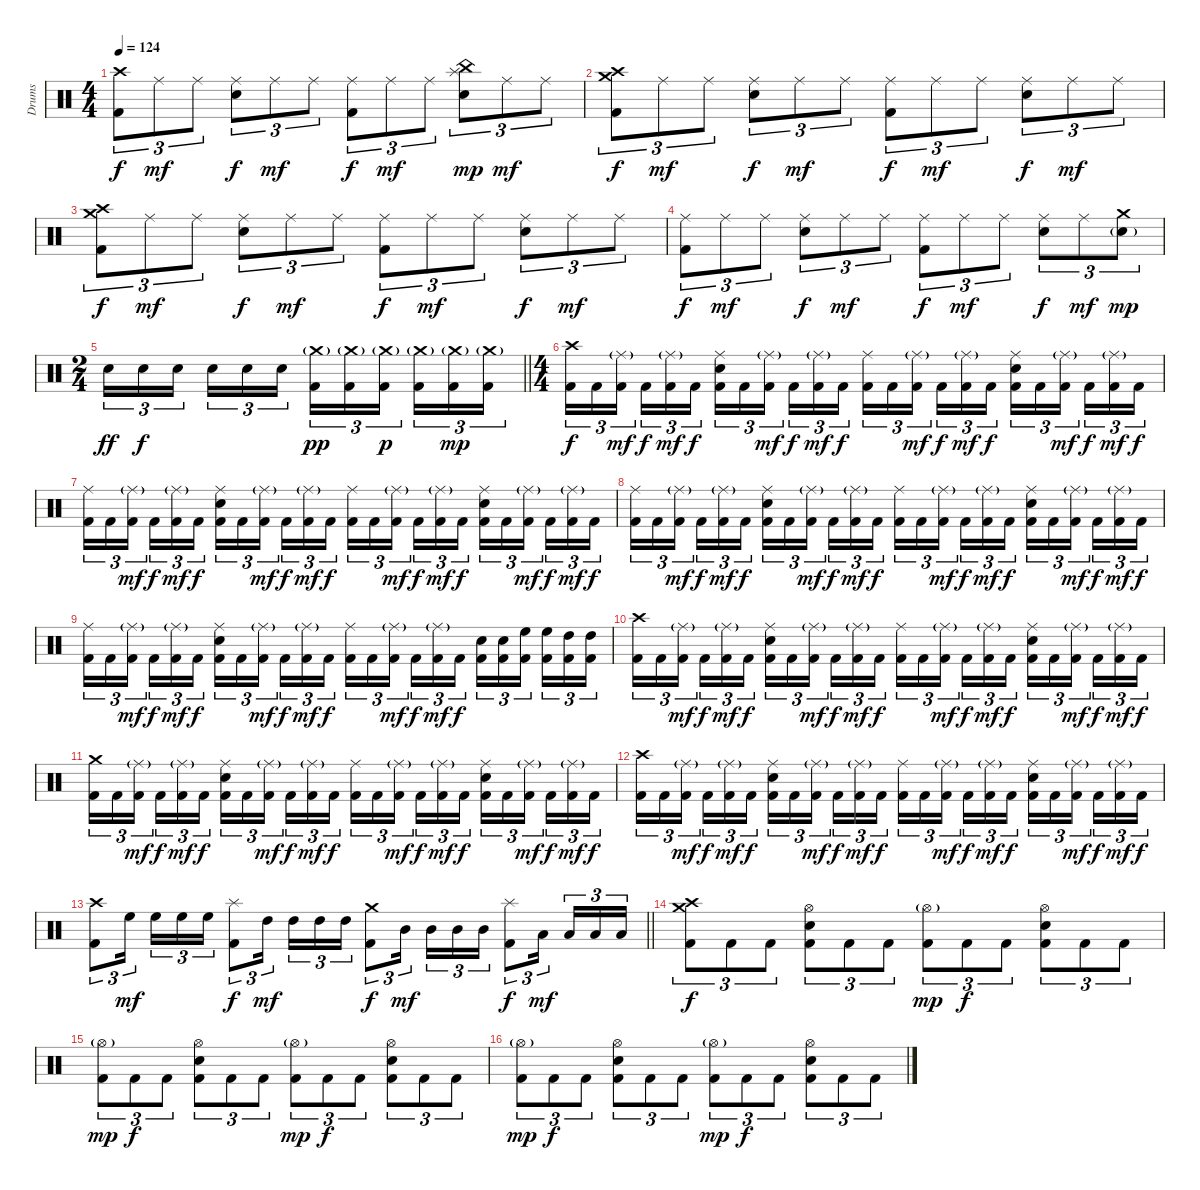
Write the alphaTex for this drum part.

\track ("Drums" "Drums") {instrument percussion}
\staff {score}
\articulation defaults
\ts (4 4)
\tempo 124
\clef neutral
\ks c
("Crash high (hit)" "Kick (hit) 2").8{tu (3 2) dy f} "Ride (middle)".8{tu (3 2) dy mf} "Ride (middle)".8{tu (3 2)} ("Ride (middle)" "Electric Snare (hit)").8{tu (3 2) dy f} "Ride (middle)".8{tu (3 2) dy mf} "Ride (middle)".8{tu (3 2)} ("Ride (middle)" "Kick (hit) 2").8{tu (3 2) dy f} "Ride (middle)".8{tu (3 2) dy mf} "Ride (middle)".8{tu (3 2)} ("China (hit)" "Splash (hit)" "Electric Snare (hit)").8{tu (3 2) dy mp} "Ride (middle)".8{tu (3 2) dy mf} "Ride (middle)".8{tu (3 2)} |
("Crash high (hit)" "Crash medium (hit)" "Kick (hit) 2").8{tu (3 2) dy f} "Ride (middle)".8{tu (3 2) dy mf} "Ride (middle)".8{tu (3 2)} ("Ride (middle)" "Electric Snare (hit)").8{tu (3 2) dy f} "Ride (middle)".8{tu (3 2) dy mf} "Ride (middle)".8{tu (3 2)} ("Ride (middle)" "Kick (hit) 2").8{tu (3 2) dy f} "Ride (middle)".8{tu (3 2) dy mf} "Ride (middle)".8{tu (3 2)} ("Ride (middle)" "Electric Snare (hit)").8{tu (3 2) dy f} "Ride (middle)".8{tu (3 2) dy mf} "Ride (middle)".8{tu (3 2)} |
("Crash high (hit)" "Crash medium (hit)" "Kick (hit) 2").8{tu (3 2) dy f} "Ride (middle)".8{tu (3 2) dy mf} "Ride (middle)".8{tu (3 2)} ("Ride (middle)" "Electric Snare (hit)").8{tu (3 2) dy f} "Ride (middle)".8{tu (3 2) dy mf} "Ride (middle)".8{tu (3 2)} ("Ride (middle)" "Kick (hit) 2").8{tu (3 2) dy f} "Ride (middle)".8{tu (3 2) dy mf} "Ride (middle)".8{tu (3 2)} ("Ride (middle)" "Electric Snare (hit)").8{tu (3 2) dy f} "Ride (middle)".8{tu (3 2) dy mf} "Ride (middle)".8{tu (3 2)} |
("Ride (middle)" "Kick (hit) 2").8{tu (3 2) dy f} "Ride (middle)".8{tu (3 2) dy mf} "Ride (middle)".8{tu (3 2)} ("Ride (middle)" "Electric Snare (hit)").8{tu (3 2) dy f} "Ride (middle)".8{tu (3 2) dy mf} "Ride (middle)".8{tu (3 2)} ("Ride (middle)" "Kick (hit) 2").8{tu (3 2) dy f} "Ride (middle)".8{tu (3 2) dy mf} "Ride (middle)".8{tu (3 2)} ("Ride (middle)" "Electric Snare (hit)").8{tu (3 2) dy f} "Ride (middle)".8{tu (3 2) dy mf} ("Crash medium (hit)" "Electric Snare (hit)"{g}).8{tu (3 2) dy mp} |
\ts (2 4)
\barLineRight lightlight "Electric Snare (hit)".16{tu (3 2) dy ff} "Electric Snare (hit)".16{tu (3 2) dy f} "Electric Snare (hit)".16{tu (3 2)} "Electric Snare (hit)".16{tu (3 2)} "Electric Snare (hit)".16{tu (3 2)} "Electric Snare (hit)".16{tu (3 2)}
("Crash medium (hit)"{g} "Kick (hit) 2").16{tu (3 2) dy pp} ("Crash medium (hit)"{g} "Kick (hit) 2").16{tu (3 2)} ("Crash medium (hit)"{g} "Kick (hit) 2").16{tu (3 2) dy p} ("Crash medium (hit)"{g} "Kick (hit) 2").16{tu (3 2)} ("Crash medium (hit)"{g} "Kick (hit) 2").16{tu (3 2) dy mp} ("Crash medium (hit)"{g} "Kick (hit) 2").16{tu (3 2)} |
\ts (4 4)
("Crash high (hit)" "Kick (hit) 2").16{tu (3 2) dy f} "Kick (hit) 2".16{tu (3 2)} ("Ride (middle)"{g} "Kick (hit) 2").16{tu (3 2) dy mf} "Kick (hit) 2".16{tu (3 2) dy f} ("Ride (middle)"{g} "Kick (hit) 2").16{tu (3 2) dy mf} "Kick (hit) 2".16{tu (3 2) dy f} ("Ride (middle)" "Electric Snare (hit)" "Kick (hit) 2").16{tu (3 2)} "Kick (hit) 2".16{tu (3 2)} ("Ride (middle)"{g} "Kick (hit) 2").16{tu (3 2) dy mf} "Kick (hit) 2".16{tu (3 2) dy f} ("Ride (middle)"{g} "Kick (hit) 2").16{tu (3 2) dy mf} "Kick (hit) 2".16{tu (3 2) dy f} ("Ride (middle)" "Kick (hit) 2").16{tu (3 2)} "Kick (hit) 2".16{tu (3 2)} ("Ride (middle)"{g} "Kick (hit) 2").16{tu (3 2) dy mf} "Kick (hit) 2".16{tu (3 2) dy f} ("Ride (middle)"{g} "Kick (hit) 2").16{tu (3 2) dy mf} "Kick (hit) 2".16{tu (3 2) dy f} ("Ride (middle)" "Electric Snare (hit)" "Kick (hit) 2").16{tu (3 2)} "Kick (hit) 2".16{tu (3 2)} ("Ride (middle)"{g} "Kick (hit) 2").16{tu (3 2) dy mf} "Kick (hit) 2".16{tu (3 2) dy f} ("Ride (middle)"{g} "Kick (hit) 2").16{tu (3 2) dy mf} "Kick (hit) 2".16{tu (3 2) dy f} |
("Ride (middle)" "Kick (hit) 2").16{tu (3 2)} "Kick (hit) 2".16{tu (3 2)} ("Ride (middle)"{g} "Kick (hit) 2").16{tu (3 2) dy mf} "Kick (hit) 2".16{tu (3 2) dy f} ("Ride (middle)"{g} "Kick (hit) 2").16{tu (3 2) dy mf} "Kick (hit) 2".16{tu (3 2) dy f} ("Ride (middle)" "Electric Snare (hit)" "Kick (hit) 2").16{tu (3 2)} "Kick (hit) 2".16{tu (3 2)} ("Ride (middle)"{g} "Kick (hit) 2").16{tu (3 2) dy mf} "Kick (hit) 2".16{tu (3 2) dy f} ("Ride (middle)"{g} "Kick (hit) 2").16{tu (3 2) dy mf} "Kick (hit) 2".16{tu (3 2) dy f} ("Ride (middle)" "Kick (hit) 2").16{tu (3 2)} "Kick (hit) 2".16{tu (3 2)} ("Ride (middle)"{g} "Kick (hit) 2").16{tu (3 2) dy mf} "Kick (hit) 2".16{tu (3 2) dy f} ("Ride (middle)"{g} "Kick (hit) 2").16{tu (3 2) dy mf} "Kick (hit) 2".16{tu (3 2) dy f} ("Ride (middle)" "Electric Snare (hit)" "Kick (hit) 2").16{tu (3 2)} "Kick (hit) 2".16{tu (3 2)} ("Ride (middle)"{g} "Kick (hit) 2").16{tu (3 2) dy mf} "Kick (hit) 2".16{tu (3 2) dy f} ("Ride (middle)"{g} "Kick (hit) 2").16{tu (3 2) dy mf} "Kick (hit) 2".16{tu (3 2) dy f} |
("Ride (middle)" "Kick (hit) 2").16{tu (3 2)} "Kick (hit) 2".16{tu (3 2)} ("Ride (middle)"{g} "Kick (hit) 2").16{tu (3 2) dy mf} "Kick (hit) 2".16{tu (3 2) dy f} ("Ride (middle)"{g} "Kick (hit) 2").16{tu (3 2) dy mf} "Kick (hit) 2".16{tu (3 2) dy f} ("Ride (middle)" "Electric Snare (hit)" "Kick (hit) 2").16{tu (3 2)} "Kick (hit) 2".16{tu (3 2)} ("Ride (middle)"{g} "Kick (hit) 2").16{tu (3 2) dy mf} "Kick (hit) 2".16{tu (3 2) dy f} ("Ride (middle)"{g} "Kick (hit) 2").16{tu (3 2) dy mf} "Kick (hit) 2".16{tu (3 2) dy f} ("Ride (middle)" "Kick (hit) 2").16{tu (3 2)} "Kick (hit) 2".16{tu (3 2)} ("Ride (middle)"{g} "Kick (hit) 2").16{tu (3 2) dy mf} "Kick (hit) 2".16{tu (3 2) dy f} ("Ride (middle)"{g} "Kick (hit) 2").16{tu (3 2) dy mf} "Kick (hit) 2".16{tu (3 2) dy f} ("Ride (middle)" "Electric Snare (hit)" "Kick (hit) 2").16{tu (3 2)} "Kick (hit) 2".16{tu (3 2)} ("Ride (middle)"{g} "Kick (hit) 2").16{tu (3 2) dy mf} "Kick (hit) 2".16{tu (3 2) dy f} ("Ride (middle)"{g} "Kick (hit) 2").16{tu (3 2) dy mf} "Kick (hit) 2".16{tu (3 2) dy f} |
("Ride (middle)" "Kick (hit) 2").16{tu (3 2)} "Kick (hit) 2".16{tu (3 2)} ("Ride (middle)"{g} "Kick (hit) 2").16{tu (3 2) dy mf} "Kick (hit) 2".16{tu (3 2) dy f} ("Ride (middle)"{g} "Kick (hit) 2").16{tu (3 2) dy mf} "Kick (hit) 2".16{tu (3 2) dy f} ("Ride (middle)" "Electric Snare (hit)" "Kick (hit) 2").16{tu (3 2)} "Kick (hit) 2".16{tu (3 2)} ("Ride (middle)"{g} "Kick (hit) 2").16{tu (3 2) dy mf} "Kick (hit) 2".16{tu (3 2) dy f} ("Ride (middle)"{g} "Kick (hit) 2").16{tu (3 2) dy mf} "Kick (hit) 2".16{tu (3 2) dy f} ("Ride (middle)" "Kick (hit) 2").16{tu (3 2)} "Kick (hit) 2".16{tu (3 2)} ("Ride (middle)"{g} "Kick (hit) 2").16{tu (3 2) dy mf} "Kick (hit) 2".16{tu (3 2) dy f} ("Ride (middle)"{g} "Kick (hit) 2").16{tu (3 2) dy mf} "Kick (hit) 2".16{tu (3 2) dy f} ("Electric Snare (hit)" "Kick (hit) 2").16{tu (3 2)} ("Electric Snare (hit)" "Kick (hit) 2").16{tu (3 2)} ("High Floor Tom (hit)" "Kick (hit) 2").16{tu (3 2)} ("High Floor Tom (hit)" "Kick (hit) 2").16{tu (3 2)} ("High Tom (hit)" "Kick (hit) 2").16{tu (3 2)} ("High Tom (hit)" "Kick (hit) 2").16{tu (3 2)} |
("Crash high (hit)" "Kick (hit) 2").16{tu (3 2)} "Kick (hit) 2".16{tu (3 2)} ("Ride (middle)"{g} "Kick (hit) 2").16{tu (3 2) dy mf} "Kick (hit) 2".16{tu (3 2) dy f} ("Ride (middle)"{g} "Kick (hit) 2").16{tu (3 2) dy mf} "Kick (hit) 2".16{tu (3 2) dy f} ("Ride (middle)" "Electric Snare (hit)" "Kick (hit) 2").16{tu (3 2)} "Kick (hit) 2".16{tu (3 2)} ("Ride (middle)"{g} "Kick (hit) 2").16{tu (3 2) dy mf} "Kick (hit) 2".16{tu (3 2) dy f} ("Ride (middle)"{g} "Kick (hit) 2").16{tu (3 2) dy mf} "Kick (hit) 2".16{tu (3 2) dy f} ("Ride (middle)" "Kick (hit) 2").16{tu (3 2)} "Kick (hit) 2".16{tu (3 2)} ("Ride (middle)"{g} "Kick (hit) 2").16{tu (3 2) dy mf} "Kick (hit) 2".16{tu (3 2) dy f} ("Ride (middle)"{g} "Kick (hit) 2").16{tu (3 2) dy mf} "Kick (hit) 2".16{tu (3 2) dy f} ("Ride (middle)" "Electric Snare (hit)" "Kick (hit) 2").16{tu (3 2)} "Kick (hit) 2".16{tu (3 2)} ("Ride (middle)"{g} "Kick (hit) 2").16{tu (3 2) dy mf} "Kick (hit) 2".16{tu (3 2) dy f} ("Ride (middle)"{g} "Kick (hit) 2").16{tu (3 2) dy mf} "Kick (hit) 2".16{tu (3 2) dy f} |
("Crash medium (hit)" "Kick (hit) 2").16{tu (3 2)} "Kick (hit) 2".16{tu (3 2)} ("Ride (middle)"{g} "Kick (hit) 2").16{tu (3 2) dy mf} "Kick (hit) 2".16{tu (3 2) dy f} ("Ride (middle)"{g} "Kick (hit) 2").16{tu (3 2) dy mf} "Kick (hit) 2".16{tu (3 2) dy f} ("Ride (middle)" "Electric Snare (hit)" "Kick (hit) 2").16{tu (3 2)} "Kick (hit) 2".16{tu (3 2)} ("Ride (middle)"{g} "Kick (hit) 2").16{tu (3 2) dy mf} "Kick (hit) 2".16{tu (3 2) dy f} ("Ride (middle)"{g} "Kick (hit) 2").16{tu (3 2) dy mf} "Kick (hit) 2".16{tu (3 2) dy f} ("Ride (middle)" "Kick (hit) 2").16{tu (3 2)} "Kick (hit) 2".16{tu (3 2)} ("Ride (middle)"{g} "Kick (hit) 2").16{tu (3 2) dy mf} "Kick (hit) 2".16{tu (3 2) dy f} ("Ride (middle)"{g} "Kick (hit) 2").16{tu (3 2) dy mf} "Kick (hit) 2".16{tu (3 2) dy f} ("Ride (middle)" "Electric Snare (hit)" "Kick (hit) 2").16{tu (3 2)} "Kick (hit) 2".16{tu (3 2)} ("Ride (middle)"{g} "Kick (hit) 2").16{tu (3 2) dy mf} "Kick (hit) 2".16{tu (3 2) dy f} ("Ride (middle)"{g} "Kick (hit) 2").16{tu (3 2) dy mf} "Kick (hit) 2".16{tu (3 2) dy f} |
("Crash high (hit)" "Kick (hit) 2").16{tu (3 2)} "Kick (hit) 2".16{tu (3 2)} ("Ride (middle)"{g} "Kick (hit) 2").16{tu (3 2) dy mf} "Kick (hit) 2".16{tu (3 2) dy f} ("Ride (middle)"{g} "Kick (hit) 2").16{tu (3 2) dy mf} "Kick (hit) 2".16{tu (3 2) dy f} ("Ride (middle)" "Electric Snare (hit)" "Kick (hit) 2").16{tu (3 2)} "Kick (hit) 2".16{tu (3 2)} ("Ride (middle)"{g} "Kick (hit) 2").16{tu (3 2) dy mf} "Kick (hit) 2".16{tu (3 2) dy f} ("Ride (middle)"{g} "Kick (hit) 2").16{tu (3 2) dy mf} "Kick (hit) 2".16{tu (3 2) dy f} ("Ride (middle)" "Kick (hit) 2").16{tu (3 2)} "Kick (hit) 2".16{tu (3 2)} ("Ride (middle)"{g} "Kick (hit) 2").16{tu (3 2) dy mf} "Kick (hit) 2".16{tu (3 2) dy f} ("Ride (middle)"{g} "Kick (hit) 2").16{tu (3 2) dy mf} "Kick (hit) 2".16{tu (3 2) dy f} ("Ride (middle)" "Electric Snare (hit)" "Kick (hit) 2").16{tu (3 2)} "Kick (hit) 2".16{tu (3 2)} ("Ride (middle)"{g} "Kick (hit) 2").16{tu (3 2) dy mf} "Kick (hit) 2".16{tu (3 2) dy f} ("Ride (middle)"{g} "Kick (hit) 2").16{tu (3 2) dy mf} "Kick (hit) 2".16{tu (3 2) dy f} |
\barLineRight lightlight
("Crash high (hit)" "Kick (hit) 2").8{tu (3 2)} "High Floor Tom (hit)".16{tu (3 2) dy mf} "High Floor Tom (hit)".16{tu (3 2)} "High Floor Tom (hit)".16{tu (3 2)} "High Floor Tom (hit)".16{tu (3 2)} ("Splash (hit)" "Kick (hit) 2").8{tu (3 2) dy f} "High Tom (hit)".16{tu (3 2) dy mf} "High Tom (hit)".16{tu (3 2)} "High Tom (hit)".16{tu (3 2)} "High Tom (hit)".16{tu (3 2)} ("Crash medium (hit)" "Kick (hit) 2").8{tu (3 2) dy f} "Mid Tom (hit)".16{tu (3 2) dy mf} "Mid Tom (hit)".16{tu (3 2)} "Mid Tom (hit)".16{tu (3 2)} "Mid Tom (hit)".16{tu (3 2)} ("Splash (hit)" "Kick (hit) 2").8{tu (3 2) dy f} "Low Tom (hit)".16{tu (3 2) dy mf} "Low Tom (hit)".16{tu (3 2)} "Low Tom (hit)".16{tu (3 2)} "Low Tom (hit)".16{tu (3 2)} |
("Crash high (hit)" "Crash medium (hit)" "Kick (hit) 2").8{tu (3 2) dy f} "Kick (hit) 2".8{tu (3 2)} "Kick (hit) 2".8{tu (3 2)} ("Hi-Hat (open)" "Electric Snare (hit)" "Kick (hit) 2").8{tu (3 2)} "Kick (hit) 2".8{tu (3 2)} "Kick (hit) 2".8{tu (3 2)} ("Hi-Hat (open)"{g} "Kick (hit) 2").8{tu (3 2) dy mp} "Kick (hit) 2".8{tu (3 2) dy f} "Kick (hit) 2".8{tu (3 2)} ("Hi-Hat (open)" "Electric Snare (hit)" "Kick (hit) 2").8{tu (3 2)} "Kick (hit) 2".8{tu (3 2)} "Kick (hit) 2".8{tu (3 2)} |
("Hi-Hat (open)"{g} "Kick (hit) 2").8{tu (3 2) dy mp} "Kick (hit) 2".8{tu (3 2) dy f} "Kick (hit) 2".8{tu (3 2)} ("Hi-Hat (open)" "Electric Snare (hit)" "Kick (hit) 2").8{tu (3 2)} "Kick (hit) 2".8{tu (3 2)} "Kick (hit) 2".8{tu (3 2)} ("Hi-Hat (open)"{g} "Kick (hit) 2").8{tu (3 2) dy mp} "Kick (hit) 2".8{tu (3 2) dy f} "Kick (hit) 2".8{tu (3 2)} ("Hi-Hat (open)" "Electric Snare (hit)" "Kick (hit) 2").8{tu (3 2)} "Kick (hit) 2".8{tu (3 2)} "Kick (hit) 2".8{tu (3 2)} |
("Hi-Hat (open)"{g} "Kick (hit) 2").8{tu (3 2) dy mp} "Kick (hit) 2".8{tu (3 2) dy f} "Kick (hit) 2".8{tu (3 2)} ("Hi-Hat (open)" "Electric Snare (hit)" "Kick (hit) 2").8{tu (3 2)} "Kick (hit) 2".8{tu (3 2)} "Kick (hit) 2".8{tu (3 2)} ("Hi-Hat (open)"{g} "Kick (hit) 2").8{tu (3 2) dy mp} "Kick (hit) 2".8{tu (3 2) dy f} "Kick (hit) 2".8{tu (3 2)} ("Hi-Hat (open)" "Electric Snare (hit)" "Kick (hit) 2").8{tu (3 2)} "Kick (hit) 2".8{tu (3 2)} "Kick (hit) 2".8{tu (3 2)}
